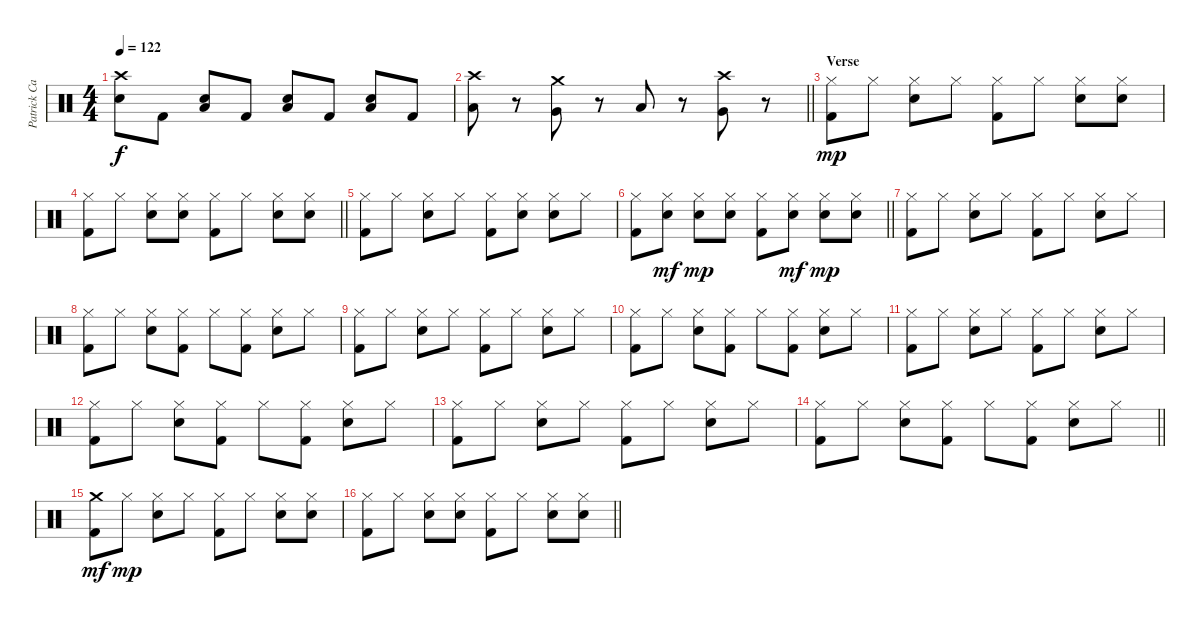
\track ("Patrick Carney" "Patrick Ca") {instrument percussion}
\staff {score}
\articulation defaults
\ts (4 4)
\tempo 122
\clef neutral
\ks c
("Crash high (hit)" "Electric Snare (hit)").8{dy f} "Kick (hit) 2".8 ("Electric Snare (hit)" "Low Floor Tom (hit)").8 "Kick (hit) 2".8 ("Electric Snare (hit)" "Low Floor Tom (hit)").8 "Kick (hit) 2".8 ("Electric Snare (hit)" "Low Floor Tom (hit)").8 "Kick (hit) 2".8 |
\barLineRight lightlight
("Crash high (hit)" "Low Floor Tom (hit)").8 r.8 ("Crash medium (hit)" "Very Low Tom (hit)").8 r.8 "Low Floor Tom (hit)".8 r.8 ("Crash high (hit)" "Very Low Tom (hit)").8 r.8 |
\section ("" "Verse")
("Hi-Hat (closed)" "Kick (hit) 2").8{dy mp} "Hi-Hat (closed)".8 ("Hi-Hat (closed)" "Electric Snare (hit)").8 "Hi-Hat (closed)".8 ("Hi-Hat (closed)" "Kick (hit) 2").8 "Hi-Hat (closed)".8 ("Hi-Hat (closed)" "Electric Snare (hit)").8 ("Hi-Hat (closed)" "Electric Snare (hit)").8 |
\barLineRight lightlight
("Hi-Hat (closed)" "Kick (hit) 2").8 "Hi-Hat (closed)".8 ("Hi-Hat (closed)" "Electric Snare (hit)").8 ("Hi-Hat (closed)" "Electric Snare (hit)").8 ("Hi-Hat (closed)" "Kick (hit) 2").8 "Hi-Hat (closed)".8 ("Hi-Hat (closed)" "Electric Snare (hit)").8 ("Hi-Hat (closed)" "Electric Snare (hit)").8 |
("Hi-Hat (closed)" "Kick (hit) 2").8 "Hi-Hat (closed)".8 ("Hi-Hat (closed)" "Electric Snare (hit)").8 "Hi-Hat (closed)".8 ("Hi-Hat (closed)" "Kick (hit) 2").8 ("Hi-Hat (closed)" "Electric Snare (hit)").8 ("Hi-Hat (closed)" "Electric Snare (hit)").8 "Hi-Hat (closed)".8 |
\barLineRight lightlight
("Hi-Hat (closed)" "Kick (hit) 2").8 ("Hi-Hat (closed)" "Electric Snare (hit)").8{dy mf} ("Hi-Hat (closed)" "Electric Snare (hit)").8{dy mp} ("Hi-Hat (closed)" "Electric Snare (hit)").8 ("Hi-Hat (closed)" "Kick (hit) 2").8 ("Hi-Hat (closed)" "Electric Snare (hit)").8{dy mf} ("Hi-Hat (closed)" "Electric Snare (hit)").8{dy mp} ("Hi-Hat (closed)" "Electric Snare (hit)").8 |
("Hi-Hat (closed)" "Kick (hit) 2").8 "Hi-Hat (closed)".8 ("Hi-Hat (closed)" "Electric Snare (hit)").8 "Hi-Hat (closed)".8 ("Hi-Hat (closed)" "Kick (hit) 2").8 "Hi-Hat (closed)".8 ("Hi-Hat (closed)" "Electric Snare (hit)").8 "Hi-Hat (closed)".8 |
("Hi-Hat (closed)" "Kick (hit) 2").8 "Hi-Hat (closed)".8 ("Hi-Hat (closed)" "Electric Snare (hit)").8 ("Hi-Hat (closed)" "Kick (hit) 2").8 "Hi-Hat (closed)".8 ("Hi-Hat (closed)" "Kick (hit) 2").8 ("Hi-Hat (closed)" "Electric Snare (hit)").8 "Hi-Hat (closed)".8 |
("Hi-Hat (closed)" "Kick (hit) 2").8 "Hi-Hat (closed)".8 ("Hi-Hat (closed)" "Electric Snare (hit)").8 "Hi-Hat (closed)".8 ("Hi-Hat (closed)" "Kick (hit) 2").8 "Hi-Hat (closed)".8 ("Hi-Hat (closed)" "Electric Snare (hit)").8 "Hi-Hat (closed)".8 |
("Hi-Hat (closed)" "Kick (hit) 2").8 "Hi-Hat (closed)".8 ("Hi-Hat (closed)" "Electric Snare (hit)").8 ("Hi-Hat (closed)" "Kick (hit) 2").8 "Hi-Hat (closed)".8 ("Hi-Hat (closed)" "Kick (hit) 2").8 ("Hi-Hat (closed)" "Electric Snare (hit)").8 "Hi-Hat (closed)".8 |
("Hi-Hat (closed)" "Kick (hit) 2").8 "Hi-Hat (closed)".8 ("Hi-Hat (closed)" "Electric Snare (hit)").8 "Hi-Hat (closed)".8 ("Hi-Hat (closed)" "Kick (hit) 2").8 "Hi-Hat (closed)".8 ("Hi-Hat (closed)" "Electric Snare (hit)").8 "Hi-Hat (closed)".8 |
("Hi-Hat (closed)" "Kick (hit) 2").8 "Hi-Hat (closed)".8 ("Hi-Hat (closed)" "Electric Snare (hit)").8 ("Hi-Hat (closed)" "Kick (hit) 2").8 "Hi-Hat (closed)".8 ("Hi-Hat (closed)" "Kick (hit) 2").8 ("Hi-Hat (closed)" "Electric Snare (hit)").8 "Hi-Hat (closed)".8 |
("Hi-Hat (closed)" "Kick (hit) 2").8 "Hi-Hat (closed)".8 ("Hi-Hat (closed)" "Electric Snare (hit)").8 "Hi-Hat (closed)".8 ("Hi-Hat (closed)" "Kick (hit) 2").8 "Hi-Hat (closed)".8 ("Hi-Hat (closed)" "Electric Snare (hit)").8 "Hi-Hat (closed)".8 |
\barLineRight lightlight
("Hi-Hat (closed)" "Kick (hit) 2").8 "Hi-Hat (closed)".8 ("Hi-Hat (closed)" "Electric Snare (hit)").8 ("Hi-Hat (closed)" "Kick (hit) 2").8 "Hi-Hat (closed)".8 ("Hi-Hat (closed)" "Kick (hit) 2").8 ("Hi-Hat (closed)" "Electric Snare (hit)").8 "Hi-Hat (closed)".8 |
("Crash medium (hit)" "Kick (hit) 2").8{dy mf} "Hi-Hat (closed)".8{dy mp} ("Hi-Hat (closed)" "Electric Snare (hit)").8 "Hi-Hat (closed)".8 ("Hi-Hat (closed)" "Kick (hit) 2").8 "Hi-Hat (closed)".8 ("Hi-Hat (closed)" "Electric Snare (hit)").8 ("Hi-Hat (closed)" "Electric Snare (hit)").8 |
\barLineRight lightlight
("Hi-Hat (closed)" "Kick (hit) 2").8 "Hi-Hat (closed)".8 ("Hi-Hat (closed)" "Electric Snare (hit)").8 ("Hi-Hat (closed)" "Electric Snare (hit)").8 ("Hi-Hat (closed)" "Kick (hit) 2").8 "Hi-Hat (closed)".8 ("Hi-Hat (closed)" "Electric Snare (hit)").8 ("Hi-Hat (closed)" "Electric Snare (hit)").8
